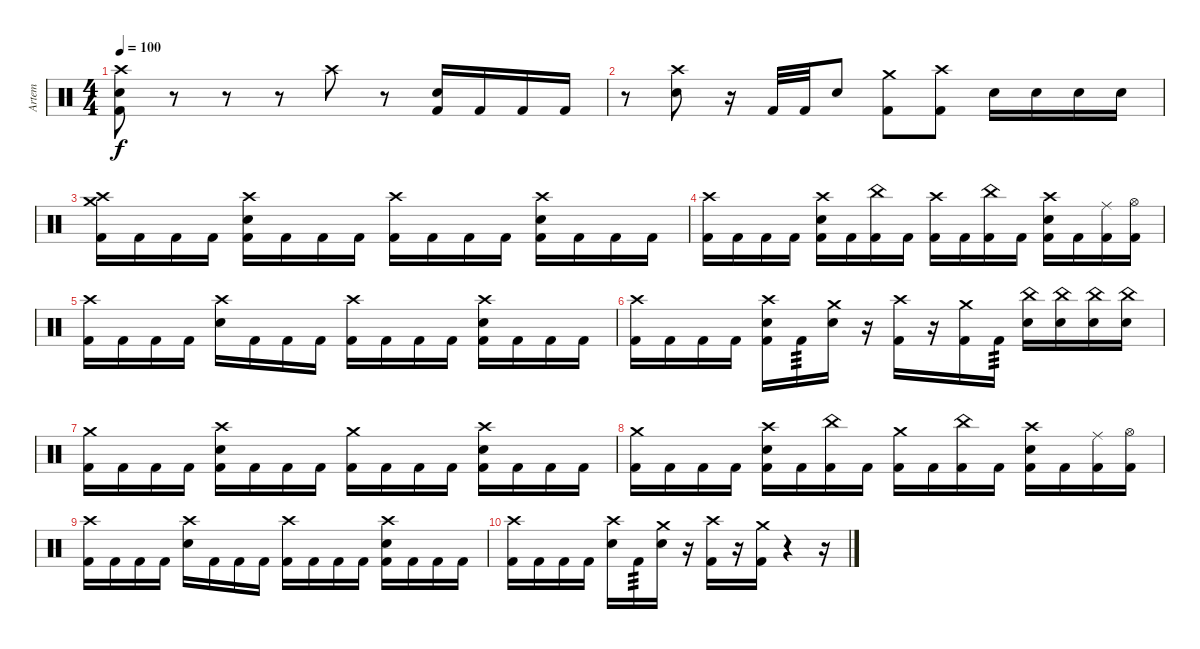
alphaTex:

\track ("Artem" "Artem") {instrument percussion}
\staff {score}
\articulation defaults
\ts (4 4)
\tempo 100
\clef neutral
\ks c
("Crash high (hit)" "Kick (hit) 2" "Electric Snare (hit)").8{dy f} r.8 r.8 r.8 "Crash high (hit)".8 r.8 ("Electric Snare (hit)" "Kick (hit) 2").16 "Kick (hit) 2".16 "Kick (hit) 2".16 "Kick (hit) 2".16 |
r.8 ("Crash high (hit)" "Electric Snare (hit)").8 r.16 "Kick (hit) 2".32 "Kick (hit) 2".32 "Electric Snare (hit)".8 ("Kick (hit) 2" "Crash medium (hit)").8 ("Kick (hit) 2" "Crash high (hit)").8 "Electric Snare (hit)".16 "Electric Snare (hit)".16 "Electric Snare (hit)".16 "Electric Snare (hit)".16 |
("Crash high (hit)" "Kick (hit) 2" "Crash medium (hit)").16 "Kick (hit) 2".16 "Kick (hit) 2".16 "Kick (hit) 2".16 ("Crash high (hit)" "Kick (hit) 2" "Electric Snare (hit)").16 "Kick (hit) 2".16 "Kick (hit) 2".16 "Kick (hit) 2".16 ("Crash high (hit)" "Kick (hit) 2").16 "Kick (hit) 2".16 "Kick (hit) 2".16 "Kick (hit) 2".16 ("Crash high (hit)" "Electric Snare (hit)" "Kick (hit) 2").16 "Kick (hit) 2".16 "Kick (hit) 2".16 "Kick (hit) 2".16 |
("Crash high (hit)" "Kick (hit) 2").16 "Kick (hit) 2".16 "Kick (hit) 2".16 "Kick (hit) 2".16 ("Crash high (hit)" "Kick (hit) 2" "Electric Snare (hit)").16 "Kick (hit) 2".16 ("China (hit)" "Kick (hit) 2").16 "Kick (hit) 2".16 ("Crash high (hit)" "Kick (hit) 2").16 "Kick (hit) 2".16 ("China (hit)" "Kick (hit) 2").16 "Kick (hit) 2".16 ("Crash high (hit)" "Kick (hit) 2" "Electric Snare (hit)").16 "Kick (hit) 2".16 ("Kick (hit) 2" "Ride (middle)").16 ("Kick (hit) 2" "Hi-Hat (open)").16 |
("Crash high (hit)" "Kick (hit) 2").16 "Kick (hit) 2".16 "Kick (hit) 2".16 "Kick (hit) 2".16 ("Crash high (hit)" "Electric Snare (hit)").16 "Kick (hit) 2".16 "Kick (hit) 2".16 "Kick (hit) 2".16 ("Crash high (hit)" "Kick (hit) 2").16 "Kick (hit) 2".16 "Kick (hit) 2".16 "Kick (hit) 2".16 ("Crash high (hit)" "Electric Snare (hit)" "Kick (hit) 2").16 "Kick (hit) 2".16 "Kick (hit) 2".16 "Kick (hit) 2".16 |
("Crash high (hit)" "Kick (hit) 2").16 "Kick (hit) 2".16 "Kick (hit) 2".16 "Kick (hit) 2".16 ("Crash high (hit)" "Kick (hit) 2" "Electric Snare (hit)").16 "Kick (hit) 2".16{tp 3} ("Crash medium (hit)" "Electric Snare (hit)").16 r.16 ("Crash high (hit)" "Kick (hit) 2").16 r.16 ("Crash medium (hit)" "Kick (hit) 2").16 "Kick (hit) 2".16{tp 3} ("China (hit)" "Electric Snare (hit)").16 ("China (hit)" "Electric Snare (hit)").16 ("China (hit)" "Electric Snare (hit)").16 ("China (hit)" "Electric Snare (hit)").16 |
("Kick (hit) 2" "Crash medium (hit)").16 "Kick (hit) 2".16 "Kick (hit) 2".16 "Kick (hit) 2".16 ("Crash high (hit)" "Kick (hit) 2" "Electric Snare (hit)").16 "Kick (hit) 2".16 "Kick (hit) 2".16 "Kick (hit) 2".16 ("Crash medium (hit)" "Kick (hit) 2").16 "Kick (hit) 2".16 "Kick (hit) 2".16 "Kick (hit) 2".16 ("Crash high (hit)" "Electric Snare (hit)" "Kick (hit) 2").16 "Kick (hit) 2".16 "Kick (hit) 2".16 "Kick (hit) 2".16 |
("Crash medium (hit)" "Kick (hit) 2").16 "Kick (hit) 2".16 "Kick (hit) 2".16 "Kick (hit) 2".16 ("Crash high (hit)" "Kick (hit) 2" "Electric Snare (hit)").16 "Kick (hit) 2".16 ("China (hit)" "Kick (hit) 2").16 "Kick (hit) 2".16 ("Crash medium (hit)" "Kick (hit) 2").16 "Kick (hit) 2".16 ("China (hit)" "Kick (hit) 2").16 "Kick (hit) 2".16 ("Crash high (hit)" "Kick (hit) 2" "Electric Snare (hit)").16 "Kick (hit) 2".16 ("Kick (hit) 2" "Ride (middle)").16 ("Kick (hit) 2" "Hi-Hat (open)").16 |
("Crash high (hit)" "Kick (hit) 2").16 "Kick (hit) 2".16 "Kick (hit) 2".16 "Kick (hit) 2".16 ("Crash high (hit)" "Electric Snare (hit)").16 "Kick (hit) 2".16 "Kick (hit) 2".16 "Kick (hit) 2".16 ("Crash high (hit)" "Kick (hit) 2").16 "Kick (hit) 2".16 "Kick (hit) 2".16 "Kick (hit) 2".16 ("Crash high (hit)" "Electric Snare (hit)" "Kick (hit) 2").16 "Kick (hit) 2".16 "Kick (hit) 2".16 "Kick (hit) 2".16 |
("Crash high (hit)" "Kick (hit) 2").16 "Kick (hit) 2".16 "Kick (hit) 2".16 "Kick (hit) 2".16 ("Crash high (hit)" "Electric Snare (hit)").16 "Kick (hit) 2".16{tp 3} ("Crash medium (hit)" "Electric Snare (hit)").16 r.16 ("Crash high (hit)" "Kick (hit) 2").16 r.16 ("Crash medium (hit)" "Kick (hit) 2").16 r.4 r.16
